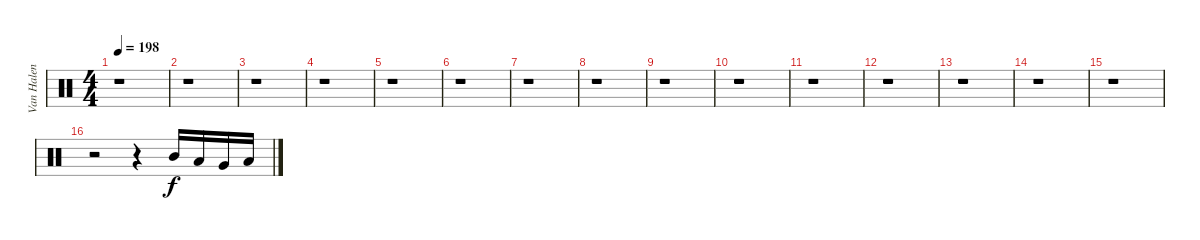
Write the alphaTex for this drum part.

\track ("Van Halen" "Van Halen") {instrument percussion}
\staff {score}
\articulation defaults
\ts (4 4)
\tempo 198
\clef neutral
\ks c
r.1{dy f} |
r.1 |
r.1 |
r.1 |
r.1 |
r.1 |
r.1 |
r.1 |
r.1 |
r.1 |
r.1 |
r.1 |
r.1 |
r.1 |
r.1 |
r.2 r.4 "Mid Tom (hit)".16 "Low Tom (hit)".16 "Very Low Tom (hit)".16 "Low Floor Tom (hit)".16
